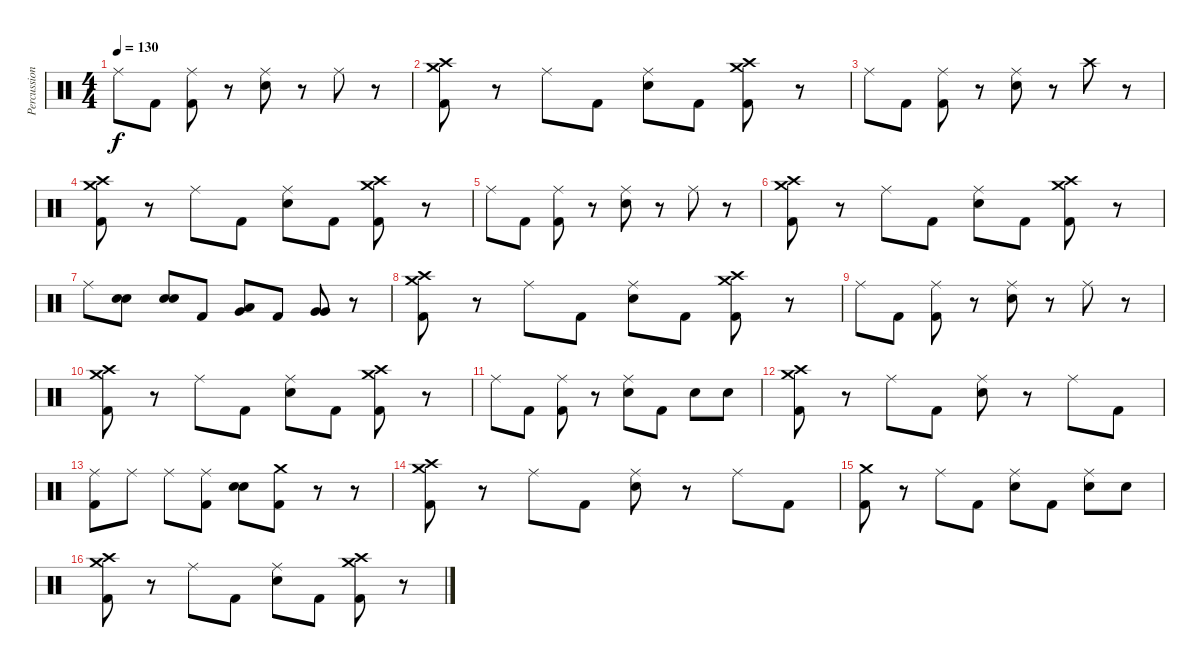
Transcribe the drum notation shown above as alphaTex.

\track ("Percussion" "Percussion") {instrument percussion}
\staff {score}
\articulation defaults
\ts (4 4)
\tempo 130
\clef neutral
\ks c "Ride (middle)".8{dy f} "Kick (hit) 2".8
("Ride (middle)" "Kick (hit) 2").8 r.8 ("Ride (middle)" "Snare (hit) 2").8 r.8 "Ride (middle)".8 r.8 |
("Crash medium (hit)" "Crash high (hit)" "Kick (hit) 2").8 r.8 "Ride (middle)".8 "Kick (hit) 2".8 ("Ride (middle)" "Snare (hit) 2").8 "Kick (hit) 2".8 ("Crash medium (hit)" "Crash high (hit)" "Kick (hit) 2").8 r.8 |
"Ride (middle)".8 "Kick (hit) 2".8 ("Ride (middle)" "Kick (hit) 2").8 r.8 ("Ride (middle)" "Snare (hit) 2").8 r.8 "Crash high (hit)".8 r.8 |
("Crash medium (hit)" "Crash high (hit)" "Kick (hit) 2").8 r.8 "Ride (middle)".8 "Kick (hit) 2".8 ("Ride (middle)" "Snare (hit) 2").8 "Kick (hit) 2".8 ("Crash medium (hit)" "Crash high (hit)" "Kick (hit) 2").8 r.8 |
"Ride (middle)".8 "Kick (hit) 2".8 ("Ride (middle)" "Kick (hit) 2").8 r.8 ("Ride (middle)" "Snare (hit) 2").8 r.8 "Ride (middle)".8 r.8 |
("Crash medium (hit)" "Crash high (hit)" "Kick (hit) 2").8 r.8 "Ride (middle)".8 "Kick (hit) 2".8 ("Ride (middle)" "Snare (hit) 2").8 "Kick (hit) 2".8 ("Crash medium (hit)" "Crash high (hit)" "Kick (hit) 2").8 r.8 |
"Ride (middle)".8 ("Snare (hit) 2" "Snare (hit) 2").8{bd 240} ("Snare (hit) 2" "Snare (hit) 2").8{bd 240} "Kick (hit) 2".8 ("Very Low Tom (hit)" "Low Tom (hit)").8{bd 240} "Kick (hit) 2".8 ("Very Low Tom (hit)" "Very Low Tom (hit)").8{bd 240} r.8 |
("Crash medium (hit)" "Crash high (hit)" "Kick (hit) 2").8 r.8 "Ride (middle)".8 "Kick (hit) 2".8 ("Ride (middle)" "Snare (hit) 2").8 "Kick (hit) 2".8 ("Crash medium (hit)" "Crash high (hit)" "Kick (hit) 2").8 r.8 |
"Ride (middle)".8 "Kick (hit) 2".8 ("Ride (middle)" "Kick (hit) 2").8 r.8 ("Ride (middle)" "Snare (hit) 2").8 r.8 "Ride (middle)".8 r.8 |
("Crash medium (hit)" "Crash high (hit)" "Kick (hit) 2").8 r.8 "Ride (middle)".8 "Kick (hit) 2".8 ("Ride (middle)" "Snare (hit) 2").8 "Kick (hit) 2".8 ("Crash medium (hit)" "Crash high (hit)" "Kick (hit) 2").8 r.8 |
"Ride (middle)".8 "Kick (hit) 2".8 ("Ride (middle)" "Kick (hit) 2").8 r.8 ("Ride (middle)" "Snare (hit) 2").8 "Kick (hit) 2".8 "Snare (hit) 2".8 "Snare (hit) 2".8 |
("Crash medium (hit)" "Crash high (hit)" "Kick (hit) 2").8 r.8 "Ride (middle)".8 "Kick (hit) 2".8 ("Ride (middle)" "Snare (hit) 2").8 r.8 "Ride (middle)".8 "Kick (hit) 2".8 |
("Ride (middle)" "Kick (hit) 2").8 "Ride (middle)".8 "Ride (middle)".8 ("Ride (middle)" "Kick (hit) 2").8 ("Snare (hit) 2" "Snare (hit) 2").8{bd 240} ("Crash medium (hit)" "Kick (hit) 2").8 r.8 r.8 |
("Crash medium (hit)" "Crash high (hit)" "Kick (hit) 2").8 r.8 "Ride (middle)".8 "Kick (hit) 2".8 ("Ride (middle)" "Snare (hit) 2").8 r.8 "Ride (middle)".8 "Kick (hit) 2".8 |
("Crash medium (hit)" "Kick (hit) 2").8 r.8 "Ride (middle)".8 "Kick (hit) 2".8 ("Ride (middle)" "Snare (hit) 2").8 "Kick (hit) 2".8 ("Ride (middle)" "Snare (hit) 2").8 "Snare (hit) 2".8 |
("Crash medium (hit)" "Crash high (hit)" "Kick (hit) 2").8 r.8 "Ride (middle)".8 "Kick (hit) 2".8 ("Ride (middle)" "Snare (hit) 2").8 "Kick (hit) 2".8 ("Crash medium (hit)" "Crash high (hit)" "Kick (hit) 2").8 r.8
